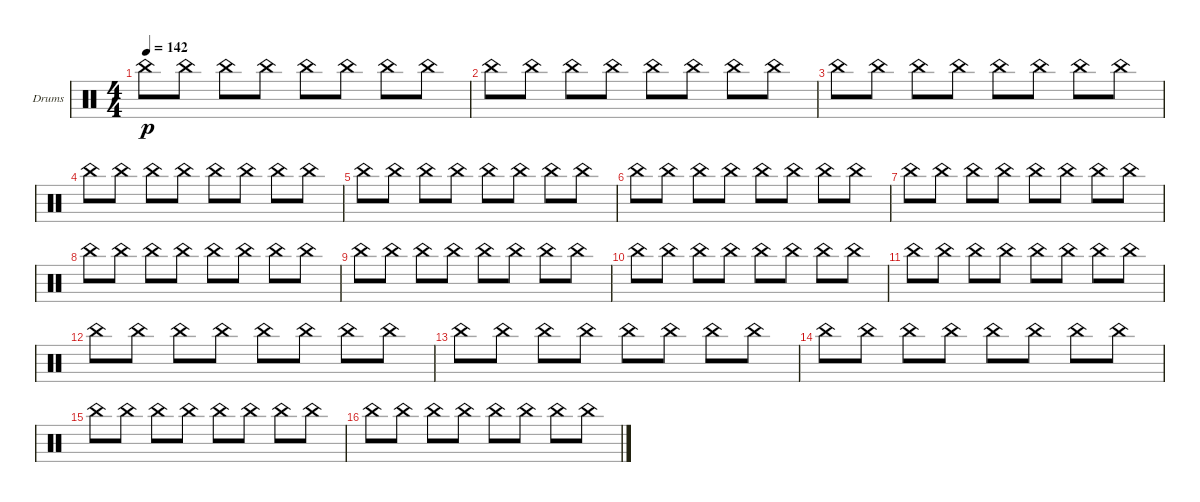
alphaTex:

\bracketExtendMode groupsimilarinstruments
\firstSystemTrackNameOrientation horizontal
\otherSystemsTrackNameOrientation horizontal
\track ("Drumkit" "Drums") {instrument percussion}
\staff {score}
\articulation defaults
\ts (4 4)
\tempo 142
\clef neutral
\scale
0.333333
\ks c "China (hit)".8{dy p} "China (hit)".8 "China (hit)".8 "China (hit)".8 "China (hit)".8 "China (hit)".8 "China (hit)".8 "China (hit)".8
|
\scale
0.333333 "China (hit)".8 "China (hit)".8 "China (hit)".8 "China (hit)".8 "China (hit)".8 "China (hit)".8 "China (hit)".8 "China (hit)".8 |
\scale
0.333333 "China (hit)".8 "China (hit)".8 "China (hit)".8 "China (hit)".8 "China (hit)".8 "China (hit)".8 "China (hit)".8 "China (hit)".8 |
\scale
0.333333 "China (hit)".8 "China (hit)".8 "China (hit)".8 "China (hit)".8 "China (hit)".8 "China (hit)".8 "China (hit)".8 "China (hit)".8 |
\scale
0.333333 "China (hit)".8 "China (hit)".8 "China (hit)".8 "China (hit)".8 "China (hit)".8 "China (hit)".8 "China (hit)".8 "China (hit)".8 |
\scale
0.333333 "China (hit)".8 "China (hit)".8 "China (hit)".8 "China (hit)".8 "China (hit)".8 "China (hit)".8 "China (hit)".8 "China (hit)".8 |
\scale
0.333333 "China (hit)".8 "China (hit)".8 "China (hit)".8 "China (hit)".8 "China (hit)".8 "China (hit)".8 "China (hit)".8 "China (hit)".8 |
\scale
0.333333 "China (hit)".8 "China (hit)".8 "China (hit)".8 "China (hit)".8 "China (hit)".8 "China (hit)".8 "China (hit)".8 "China (hit)".8 |
\scale
0.333333 "China (hit)".8 "China (hit)".8 "China (hit)".8 "China (hit)".8 "China (hit)".8 "China (hit)".8 "China (hit)".8 "China (hit)".8 |
\scale
0.333333 "China (hit)".8 "China (hit)".8 "China (hit)".8 "China (hit)".8 "China (hit)".8 "China (hit)".8 "China (hit)".8 "China (hit)".8 |
\scale
0.333333 "China (hit)".8 "China (hit)".8 "China (hit)".8 "China (hit)".8 "China (hit)".8 "China (hit)".8 "China (hit)".8 "China (hit)".8 |
\scale
0.333333 "China (hit)".8 "China (hit)".8 "China (hit)".8 "China (hit)".8 "China (hit)".8 "China (hit)".8 "China (hit)".8 "China (hit)".8 |
\scale
0.333333 "China (hit)".8 "China (hit)".8 "China (hit)".8 "China (hit)".8 "China (hit)".8 "China (hit)".8 "China (hit)".8 "China (hit)".8 |
"China (hit)".8 "China (hit)".8 "China (hit)".8 "China (hit)".8 "China (hit)".8 "China (hit)".8 "China (hit)".8 "China (hit)".8 |
"China (hit)".8 "China (hit)".8 "China (hit)".8 "China (hit)".8 "China (hit)".8 "China (hit)".8 "China (hit)".8 "China (hit)".8 |
"China (hit)".8 "China (hit)".8 "China (hit)".8 "China (hit)".8 "China (hit)".8 "China (hit)".8 "China (hit)".8 "China (hit)".8
